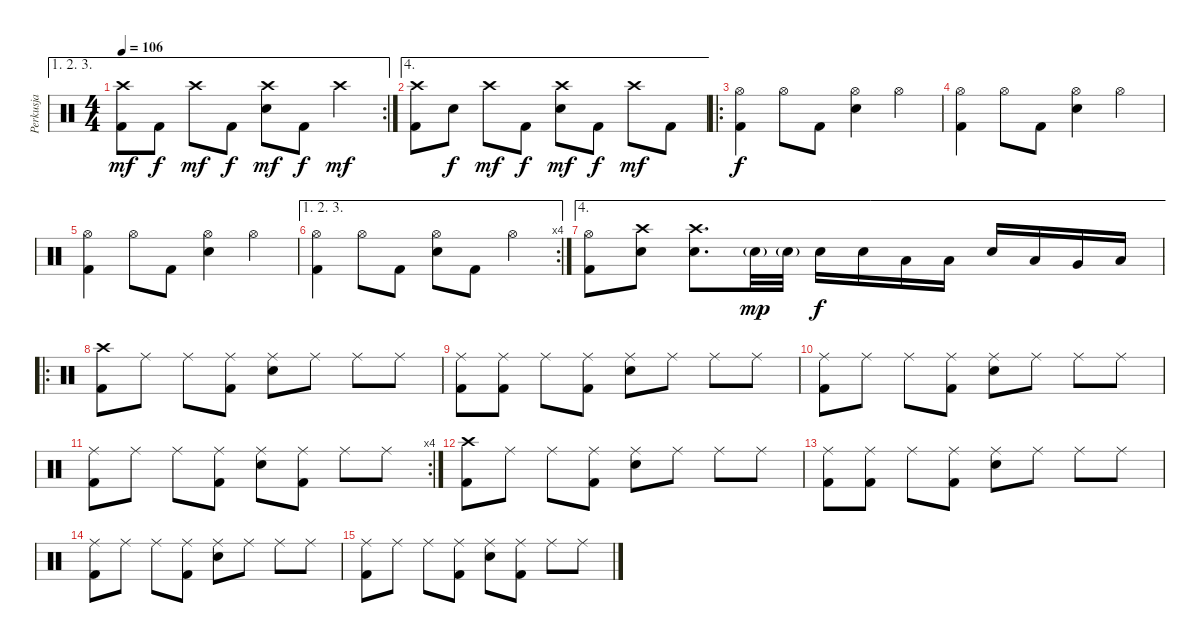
\track ("Perkusja" "Perkusja") {instrument percussion}
\staff {score}
\articulation defaults
\ae (1 2 3)
\rc 2
\ts (4 4)
\tempo 106
\clef neutral
\ks c
("Crash high (hit)" "Kick (hit) 2").8{dy mf} "Kick (hit) 2".8{dy f} "Crash high (hit)".8{dy mf} "Kick (hit) 2".8{dy f} ("Crash high (hit)" "Electric Snare (hit)").8{dy mf} "Kick (hit) 2".8{dy f} "Crash high (hit)".4{dy mf} |
\ae 4
("Crash high (hit)" "Kick (hit) 2").8 "Electric Snare (hit)".8{dy f} "Crash high (hit)".8{dy mf} "Kick (hit) 2".8{dy f} ("Crash high (hit)" "Electric Snare (hit)").8{dy mf} "Kick (hit) 2".8{dy f} "Crash high (hit)".8{dy mf} "Kick (hit) 2".8 |
\ro
("Hi-Hat (open)" "Kick (hit) 2").4{dy f} "Hi-Hat (open)".8 "Kick (hit) 2".8 ("Hi-Hat (open)" "Electric Snare (hit)").4 "Hi-Hat (open)".4 |
("Hi-Hat (open)" "Kick (hit) 2").4 "Hi-Hat (open)".8 "Kick (hit) 2".8 ("Hi-Hat (open)" "Electric Snare (hit)").4 "Hi-Hat (open)".4 |
("Hi-Hat (open)" "Kick (hit) 2").4 "Hi-Hat (open)".8 "Kick (hit) 2".8 ("Hi-Hat (open)" "Electric Snare (hit)").4 "Hi-Hat (open)".4 |
\ae (1 2 3)
\rc 4
("Hi-Hat (open)" "Kick (hit) 2").4 "Hi-Hat (open)".8 "Kick (hit) 2".8 ("Hi-Hat (open)" "Electric Snare (hit)").8 "Kick (hit) 2".8 "Hi-Hat (open)".4 |
\ae 4
("Hi-Hat (open)" "Kick (hit) 2").8 ("Crash high (hit)" "Electric Snare (hit)").8 ("Crash high (hit)" "Electric Snare (hit)").8{d} "Electric Snare (hit)"{g}.32{dy mp} "Electric Snare (hit)"{g}.32 "Electric Snare (hit)".16{dy f} "Electric Snare (hit)".16 "Low Tom (hit)".16 "Low Tom (hit)".16 "Electric Snare (hit)".16 "Low Tom (hit)".16 "Very Low Tom (hit)".16 "Low Floor Tom (hit)".16 |
\ro
("Crash high (hit)" "Kick (hit) 2").8 "Ride (middle)".8 "Ride (middle)".8 ("Ride (middle)" "Kick (hit) 2").8 ("Ride (middle)" "Electric Snare (hit)").8 "Ride (middle)".8 "Ride (middle)".8 "Ride (middle)".8 |
("Ride (middle)" "Kick (hit) 2").8 ("Ride (middle)" "Kick (hit) 2").8 "Ride (middle)".8 ("Ride (middle)" "Kick (hit) 2").8 ("Ride (middle)" "Electric Snare (hit)").8 "Ride (middle)".8 "Ride (middle)".8 "Ride (middle)".8 |
("Ride (middle)" "Kick (hit) 2").8 "Ride (middle)".8 "Ride (middle)".8 ("Ride (middle)" "Kick (hit) 2").8 ("Ride (middle)" "Electric Snare (hit)").8 "Ride (middle)".8 "Ride (middle)".8 "Ride (middle)".8 |
\rc 4
("Ride (middle)" "Kick (hit) 2").8 "Ride (middle)".8 "Ride (middle)".8 ("Ride (middle)" "Kick (hit) 2").8 ("Ride (middle)" "Electric Snare (hit)").8 ("Ride (middle)" "Kick (hit) 2").8 "Ride (middle)".8 "Ride (middle)".8 |
("Crash high (hit)" "Kick (hit) 2").8 "Ride (middle)".8 "Ride (middle)".8 ("Ride (middle)" "Kick (hit) 2").8 ("Ride (middle)" "Electric Snare (hit)").8 "Ride (middle)".8 "Ride (middle)".8 "Ride (middle)".8 |
("Ride (middle)" "Kick (hit) 2").8 ("Ride (middle)" "Kick (hit) 2").8 "Ride (middle)".8 ("Ride (middle)" "Kick (hit) 2").8 ("Ride (middle)" "Electric Snare (hit)").8 "Ride (middle)".8 "Ride (middle)".8 "Ride (middle)".8 |
("Ride (middle)" "Kick (hit) 2").8 "Ride (middle)".8 "Ride (middle)".8 ("Ride (middle)" "Kick (hit) 2").8 ("Ride (middle)" "Electric Snare (hit)").8 "Ride (middle)".8 "Ride (middle)".8 "Ride (middle)".8 |
("Ride (middle)" "Kick (hit) 2").8 "Ride (middle)".8 "Ride (middle)".8 ("Ride (middle)" "Kick (hit) 2").8 ("Ride (middle)" "Electric Snare (hit)").8 ("Ride (middle)" "Kick (hit) 2").8 "Ride (middle)".8 "Ride (middle)".8
